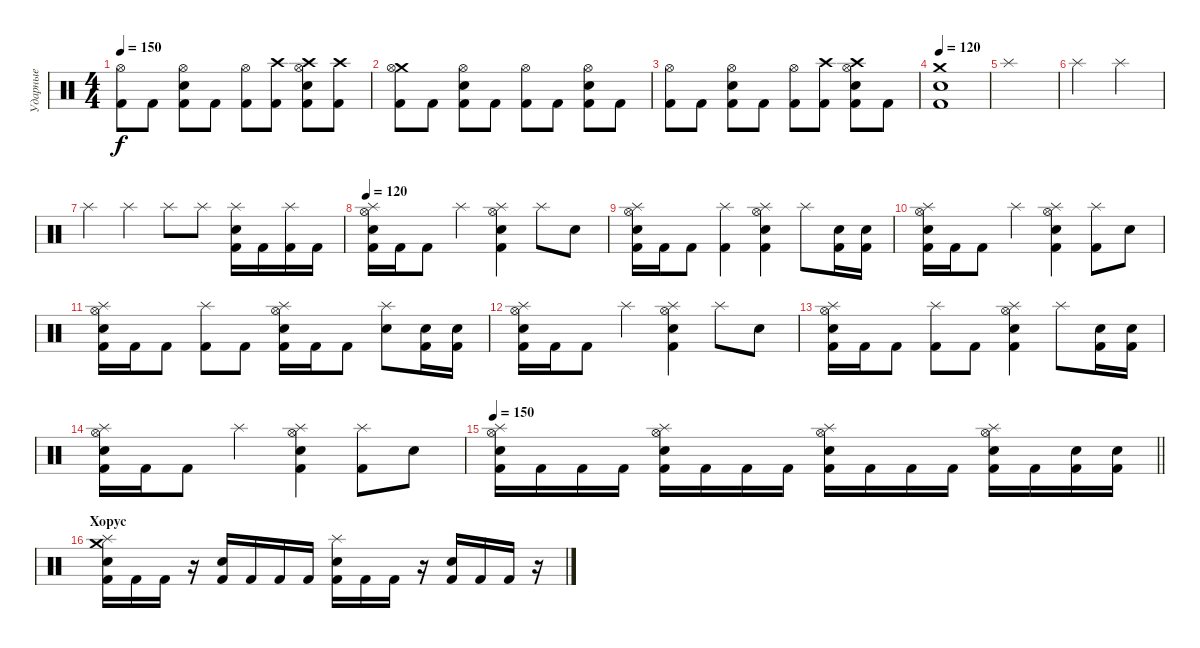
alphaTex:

\track ("Ударные" "Ударные") {instrument percussion}
\staff {score}
\articulation defaults
\ts (4 4)
\tempo 150
\clef neutral
\ks c
("Hi-Hat (open)" "Kick (hit) 2").8{dy f} "Kick (hit) 2".8 ("Hi-Hat (open)" "Snare (hit) 2" "Kick (hit) 2").8 "Kick (hit) 2".8 ("Hi-Hat (open)" "Kick (hit) 2").8 ("Crash high (hit)" "Kick (hit) 2").8 ("Crash high (hit)" "Hi-Hat (open)" "Snare (hit) 2" "Kick (hit) 2").8 ("Crash high (hit)" "Kick (hit) 2").8 |
("Crash medium (hit)" "Hi-Hat (open)" "Kick (hit) 2").8 "Kick (hit) 2".8 ("Hi-Hat (open)" "Snare (hit) 2" "Kick (hit) 2").8 "Kick (hit) 2".8 ("Hi-Hat (open)" "Kick (hit) 2").8 "Kick (hit) 2".8 ("Hi-Hat (open)" "Snare (hit) 2" "Kick (hit) 2").8 "Kick (hit) 2".8 |
("Hi-Hat (open)" "Kick (hit) 2").8 "Kick (hit) 2".8 ("Hi-Hat (open)" "Snare (hit) 2" "Kick (hit) 2").8 "Kick (hit) 2".8 ("Hi-Hat (open)" "Kick (hit) 2").8 ("Crash high (hit)" "Kick (hit) 2").8 ("Crash high (hit)" "Hi-Hat (open)" "Snare (hit) 2" "Kick (hit) 2").8 "Kick (hit) 2".8 |
\tempo 120
("Crash medium (hit)" "Snare (hit) 2" "Kick (hit) 2").1 |
"Splash (hit)".1 |
"Splash (hit)".2 "Splash (hit)".2 |
"Splash (hit)".4 "Splash (hit)".4 "Splash (hit)".8 "Splash (hit)".8 ("Splash (hit)" "Snare (hit) 2" "Kick (hit) 2").16 "Kick (hit) 2".16 ("Splash (hit)" "Kick (hit) 2").16 "Kick (hit) 2".16 |
\tempo 120
("Hi-Hat (open)" "Splash (hit)" "Snare (hit) 2" "Kick (hit) 2").16 "Kick (hit) 2".16 "Kick (hit) 2".8 "Splash (hit)".4 ("Hi-Hat (open)" "Splash (hit)" "Snare (hit) 2" "Kick (hit) 2").4 "Splash (hit)".8 "Snare (hit) 2".8 |
("Hi-Hat (open)" "Splash (hit)" "Snare (hit) 2" "Kick (hit) 2").16 "Kick (hit) 2".16 "Kick (hit) 2".8 ("Splash (hit)" "Kick (hit) 2").4 ("Hi-Hat (open)" "Splash (hit)" "Snare (hit) 2" "Kick (hit) 2").4 "Splash (hit)".8 ("Snare (hit) 2" "Kick (hit) 2").16 ("Snare (hit) 2" "Kick (hit) 2").16 |
("Hi-Hat (open)" "Splash (hit)" "Snare (hit) 2" "Kick (hit) 2").16 "Kick (hit) 2".16 "Kick (hit) 2".8 "Splash (hit)".4 ("Hi-Hat (open)" "Splash (hit)" "Snare (hit) 2" "Kick (hit) 2").4 ("Splash (hit)" "Kick (hit) 2").8 "Snare (hit) 2".8 |
("Hi-Hat (open)" "Splash (hit)" "Snare (hit) 2" "Kick (hit) 2").16 "Kick (hit) 2".16 "Kick (hit) 2".8 ("Splash (hit)" "Kick (hit) 2").8 "Kick (hit) 2".8 ("Hi-Hat (open)" "Splash (hit)" "Snare (hit) 2" "Kick (hit) 2").16 "Kick (hit) 2".16 "Kick (hit) 2".8 ("Splash (hit)" "Snare (hit) 2").8 ("Snare (hit) 2" "Kick (hit) 2").16 ("Snare (hit) 2" "Kick (hit) 2").16 |
("Hi-Hat (open)" "Splash (hit)" "Snare (hit) 2" "Kick (hit) 2").16 "Kick (hit) 2".16 "Kick (hit) 2".8 "Splash (hit)".4 ("Hi-Hat (open)" "Splash (hit)" "Snare (hit) 2" "Kick (hit) 2").4 "Splash (hit)".8 "Snare (hit) 2".8 |
("Hi-Hat (open)" "Splash (hit)" "Snare (hit) 2" "Kick (hit) 2").16 "Kick (hit) 2".16 "Kick (hit) 2".8 ("Splash (hit)" "Kick (hit) 2").8 "Kick (hit) 2".8 ("Hi-Hat (open)" "Splash (hit)" "Snare (hit) 2" "Kick (hit) 2").4 "Splash (hit)".8 ("Snare (hit) 2" "Kick (hit) 2").16 ("Snare (hit) 2" "Kick (hit) 2").16 |
("Hi-Hat (open)" "Splash (hit)" "Snare (hit) 2" "Kick (hit) 2").16 "Kick (hit) 2".16 "Kick (hit) 2".8 "Splash (hit)".4 ("Hi-Hat (open)" "Splash (hit)" "Snare (hit) 2" "Kick (hit) 2").4 ("Splash (hit)" "Kick (hit) 2").8 "Snare (hit) 2".8 |
\tempo 150
\barLineRight lightlight
("Hi-Hat (open)" "Splash (hit)" "Snare (hit) 2" "Kick (hit) 2").16 "Kick (hit) 2".16 "Kick (hit) 2".16 "Kick (hit) 2".16 ("Hi-Hat (open)" "Splash (hit)" "Snare (hit) 2" "Kick (hit) 2").16 "Kick (hit) 2".16 "Kick (hit) 2".16 "Kick (hit) 2".16 ("Hi-Hat (open)" "Splash (hit)" "Snare (hit) 2" "Kick (hit) 2").16 "Kick (hit) 2".16 "Kick (hit) 2".16 "Kick (hit) 2".16 ("Hi-Hat (open)" "Splash (hit)" "Snare (hit) 2" "Kick (hit) 2").16 "Kick (hit) 2".16 ("Snare (hit) 2" "Kick (hit) 2").16 ("Snare (hit) 2" "Kick (hit) 2").16 |
\section ("" "Хорус")
("Crash medium (hit)" "Splash (hit)" "Snare (hit) 2" "Kick (hit) 2").16 "Kick (hit) 2".16 "Kick (hit) 2".16 r.16 ("Snare (hit) 2" "Kick (hit) 2").16 "Kick (hit) 2".16 "Kick (hit) 2".16 "Kick (hit) 2".16 ("Splash (hit)" "Snare (hit) 2" "Kick (hit) 2").16 "Kick (hit) 2".16 "Kick (hit) 2".16 r.16 ("Snare (hit) 2" "Kick (hit) 2").16 "Kick (hit) 2".16 "Kick (hit) 2".16 r.16
